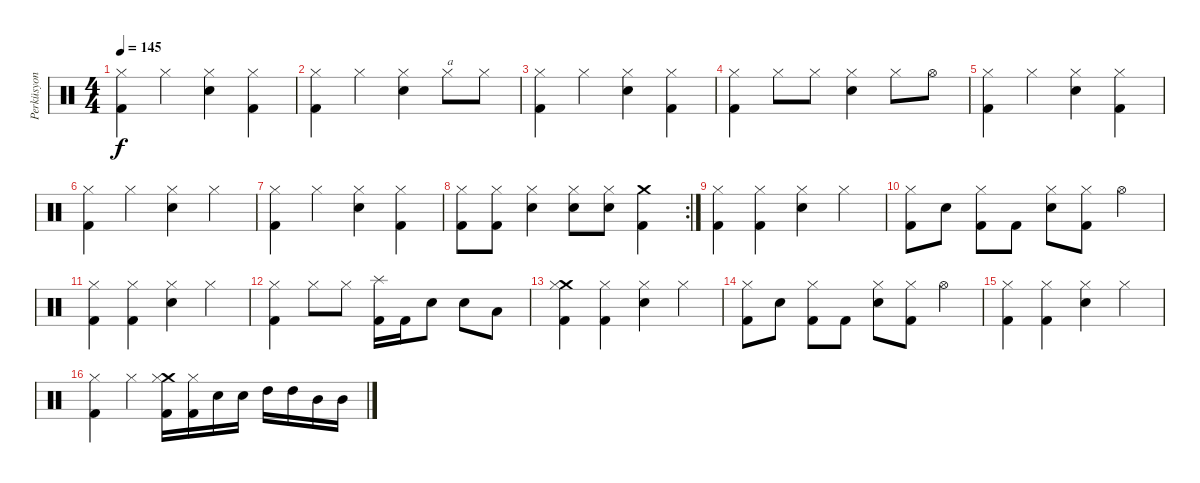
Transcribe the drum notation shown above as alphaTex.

\track ("Perküsyon" "Perküsyon") {instrument percussion}
\staff {score}
\articulation defaults
\ts (4 4)
\tempo 145
\clef neutral
\ks c
("Kick (hit) 2" "Hi-Hat (closed)").4{dy f} "Hi-Hat (closed)".4 ("Electric Snare (hit)" "Hi-Hat (closed)").4 ("Kick (hit) 2" "Hi-Hat (closed)").4 |
("Kick (hit) 2" "Hi-Hat (closed)").4 "Hi-Hat (closed)".4 ("Electric Snare (hit)" "Hi-Hat (closed)").4 "Hi-Hat (closed)".8{txt "a"} "Hi-Hat (closed)".8 |
("Kick (hit) 2" "Hi-Hat (closed)").4 "Hi-Hat (closed)".4 ("Electric Snare (hit)" "Hi-Hat (closed)").4 ("Kick (hit) 2" "Hi-Hat (closed)").4 |
("Kick (hit) 2" "Hi-Hat (closed)").4 "Hi-Hat (closed)".8 "Hi-Hat (closed)".8 ("Electric Snare (hit)" "Hi-Hat (closed)").4 "Hi-Hat (closed)".8 "Hi-Hat (open)".8 |
("Kick (hit) 2" "Hi-Hat (closed)").4 "Hi-Hat (closed)".4 ("Electric Snare (hit)" "Hi-Hat (closed)").4 ("Kick (hit) 2" "Hi-Hat (closed)").4 |
("Kick (hit) 2" "Hi-Hat (closed)").4 "Hi-Hat (closed)".4 ("Electric Snare (hit)" "Hi-Hat (closed)").4 "Hi-Hat (closed)".4 |
("Kick (hit) 2" "Hi-Hat (closed)").4 "Hi-Hat (closed)".4 ("Electric Snare (hit)" "Hi-Hat (closed)").4 ("Kick (hit) 2" "Hi-Hat (closed)").4 |
\rc 2
("Kick (hit) 2" "Hi-Hat (closed)").8 ("Kick (hit) 2" "Hi-Hat (closed)").8 ("Electric Snare (hit)" "Hi-Hat (closed)").4 ("Electric Snare (hit)" "Hi-Hat (closed)").8 ("Electric Snare (hit)" "Hi-Hat (closed)").8 ("Kick (hit) 2" "Crash medium (hit)").4 |
("Kick (hit) 2" "Hi-Hat (closed)").4 ("Kick (hit) 2" "Hi-Hat (closed)").4 ("Electric Snare (hit)" "Hi-Hat (closed)").4 "Hi-Hat (closed)".4 |
("Kick (hit) 2" "Hi-Hat (closed)").8 "Electric Snare (hit)".8 ("Kick (hit) 2" "Hi-Hat (closed)").8 "Kick (hit) 2".8 ("Electric Snare (hit)" "Hi-Hat (closed)").8 ("Kick (hit) 2" "Hi-Hat (closed)").8 "Hi-Hat (open)".4 |
("Kick (hit) 2" "Hi-Hat (closed)").4 ("Kick (hit) 2" "Hi-Hat (closed)").4 ("Electric Snare (hit)" "Hi-Hat (closed)").4 "Hi-Hat (closed)".4 |
("Kick (hit) 2" "Hi-Hat (closed)").4 "Hi-Hat (closed)".8 "Hi-Hat (closed)".8 ("Kick (hit) 2" "Splash (hit)").16 "Kick (hit) 2".16 "Electric Snare (hit)".8 "Electric Snare (hit)".8 "Low Tom (hit)".8 |
("Kick (hit) 2" "Crash medium (hit)" "Hi-Hat (closed)").4 ("Kick (hit) 2" "Hi-Hat (closed)").4 ("Electric Snare (hit)" "Hi-Hat (closed)").4 "Hi-Hat (closed)".4 |
("Kick (hit) 2" "Hi-Hat (closed)").8 "Electric Snare (hit)".8 ("Kick (hit) 2" "Hi-Hat (closed)").8 "Kick (hit) 2".8 ("Electric Snare (hit)" "Hi-Hat (closed)").8 ("Kick (hit) 2" "Hi-Hat (closed)").8 "Hi-Hat (open)".4 |
("Kick (hit) 2" "Hi-Hat (closed)").4 ("Kick (hit) 2" "Hi-Hat (closed)").4 ("Electric Snare (hit)" "Hi-Hat (closed)").4 "Hi-Hat (closed)".4 |
("Kick (hit) 2" "Hi-Hat (closed)").4 "Hi-Hat (closed)".4 ("Kick (hit) 2" "Crash medium (hit)" "Hi-Hat (closed)").16 ("Kick (hit) 2" "Hi-Hat (closed)").16 "Electric Snare (hit)".16 "Electric Snare (hit)".16 "High Tom (hit)".16 "High Tom (hit)".16 "Mid Tom (hit)".16 "Mid Tom (hit)".16
